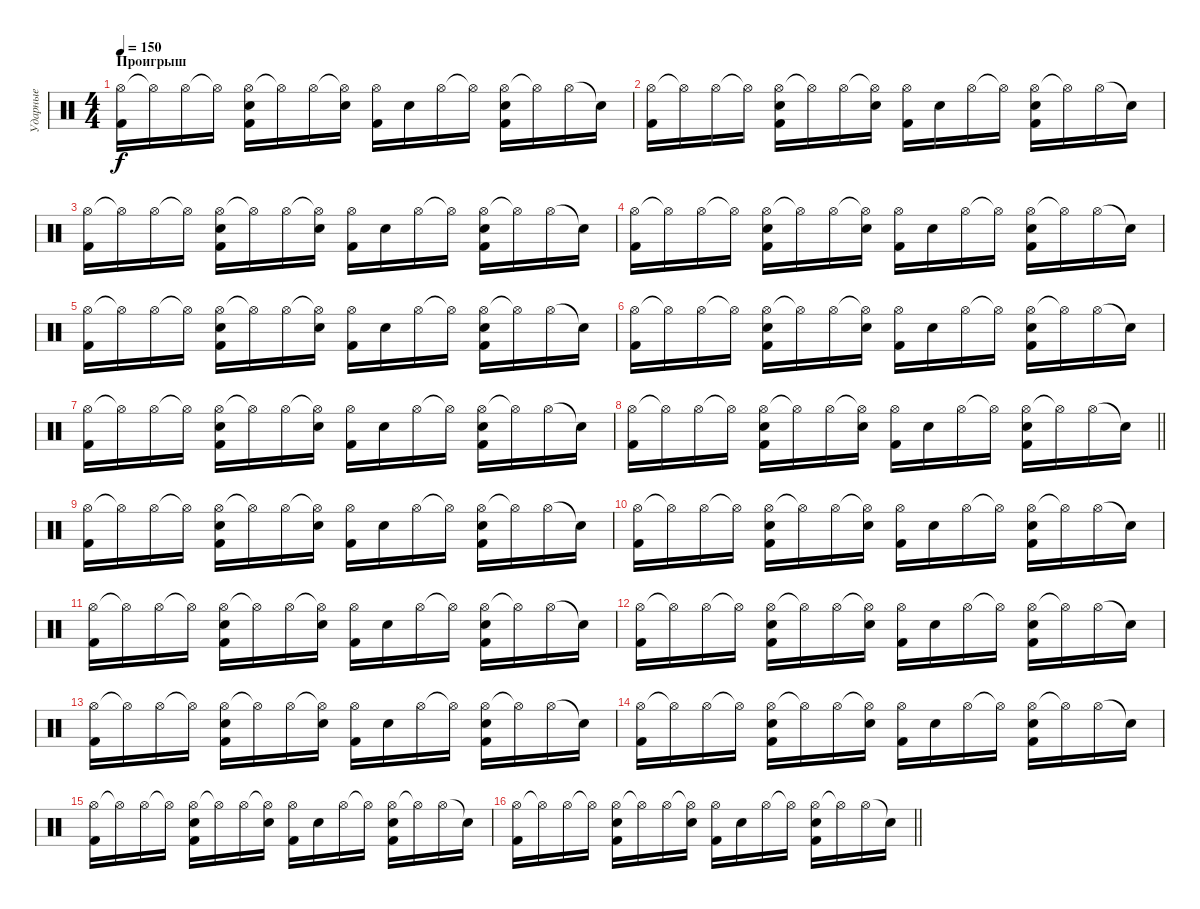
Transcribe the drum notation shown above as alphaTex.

\track ("Ударные" "Ударные") {instrument percussion}
\staff {score}
\articulation defaults
\ts (4 4)
\section ("" "Проигрыш")
\tempo 150
\clef neutral
\ks c
("Hi-Hat (open)" "Kick (hit) 2").16{dy f} "Hi-Hat (open)"{t}.16 "Hi-Hat (open)".16 "Hi-Hat (open)"{t}.16 ("Hi-Hat (open)" "Snare (hit) 2" "Kick (hit) 2").16 "Hi-Hat (open)"{t}.16 "Hi-Hat (open)".16 ("Hi-Hat (open)"{t} "Snare (hit) 2").16 ("Hi-Hat (open)" "Kick (hit) 2").16 "Snare (hit) 2".16 "Hi-Hat (open)".16 "Hi-Hat (open)"{t}.16 ("Hi-Hat (open)" "Snare (hit) 2" "Kick (hit) 2").16 "Hi-Hat (open)"{t}.16 "Hi-Hat (open)".16 "Snare (hit)"{t}.16 |
("Hi-Hat (open)" "Kick (hit) 2").16 "Hi-Hat (open)"{t}.16 "Hi-Hat (open)".16 "Hi-Hat (open)"{t}.16 ("Hi-Hat (open)" "Snare (hit) 2" "Kick (hit) 2").16 "Hi-Hat (open)"{t}.16 "Hi-Hat (open)".16 ("Hi-Hat (open)"{t} "Snare (hit) 2").16 ("Hi-Hat (open)" "Kick (hit) 2").16 "Snare (hit) 2".16 "Hi-Hat (open)".16 "Hi-Hat (open)"{t}.16 ("Hi-Hat (open)" "Snare (hit) 2" "Kick (hit) 2").16 "Hi-Hat (open)"{t}.16 "Hi-Hat (open)".16 "Snare (hit)"{t}.16 |
("Hi-Hat (open)" "Kick (hit) 2").16 "Hi-Hat (open)"{t}.16 "Hi-Hat (open)".16 "Hi-Hat (open)"{t}.16 ("Hi-Hat (open)" "Snare (hit) 2" "Kick (hit) 2").16 "Hi-Hat (open)"{t}.16 "Hi-Hat (open)".16 ("Hi-Hat (open)"{t} "Snare (hit) 2").16 ("Hi-Hat (open)" "Kick (hit) 2").16 "Snare (hit) 2".16 "Hi-Hat (open)".16 "Hi-Hat (open)"{t}.16 ("Hi-Hat (open)" "Snare (hit) 2" "Kick (hit) 2").16 "Hi-Hat (open)"{t}.16 "Hi-Hat (open)".16 "Snare (hit)"{t}.16 |
("Hi-Hat (open)" "Kick (hit) 2").16 "Hi-Hat (open)"{t}.16 "Hi-Hat (open)".16 "Hi-Hat (open)"{t}.16 ("Hi-Hat (open)" "Snare (hit) 2" "Kick (hit) 2").16 "Hi-Hat (open)"{t}.16 "Hi-Hat (open)".16 ("Hi-Hat (open)"{t} "Snare (hit) 2").16 ("Hi-Hat (open)" "Kick (hit) 2").16 "Snare (hit) 2".16 "Hi-Hat (open)".16 "Hi-Hat (open)"{t}.16 ("Hi-Hat (open)" "Snare (hit) 2" "Kick (hit) 2").16 "Hi-Hat (open)"{t}.16 "Hi-Hat (open)".16 "Snare (hit)"{t}.16 |
("Hi-Hat (open)" "Kick (hit) 2").16 "Hi-Hat (open)"{t}.16 "Hi-Hat (open)".16 "Hi-Hat (open)"{t}.16 ("Hi-Hat (open)" "Snare (hit) 2" "Kick (hit) 2").16 "Hi-Hat (open)"{t}.16 "Hi-Hat (open)".16 ("Hi-Hat (open)"{t} "Snare (hit) 2").16 ("Hi-Hat (open)" "Kick (hit) 2").16 "Snare (hit) 2".16 "Hi-Hat (open)".16 "Hi-Hat (open)"{t}.16 ("Hi-Hat (open)" "Snare (hit) 2" "Kick (hit) 2").16 "Hi-Hat (open)"{t}.16 "Hi-Hat (open)".16 "Snare (hit)"{t}.16 |
("Hi-Hat (open)" "Kick (hit) 2").16 "Hi-Hat (open)"{t}.16 "Hi-Hat (open)".16 "Hi-Hat (open)"{t}.16 ("Hi-Hat (open)" "Snare (hit) 2" "Kick (hit) 2").16 "Hi-Hat (open)"{t}.16 "Hi-Hat (open)".16 ("Hi-Hat (open)"{t} "Snare (hit) 2").16 ("Hi-Hat (open)" "Kick (hit) 2").16 "Snare (hit) 2".16 "Hi-Hat (open)".16 "Hi-Hat (open)"{t}.16 ("Hi-Hat (open)" "Snare (hit) 2" "Kick (hit) 2").16 "Hi-Hat (open)"{t}.16 "Hi-Hat (open)".16 "Snare (hit)"{t}.16 |
("Hi-Hat (open)" "Kick (hit) 2").16 "Hi-Hat (open)"{t}.16 "Hi-Hat (open)".16 "Hi-Hat (open)"{t}.16 ("Hi-Hat (open)" "Snare (hit) 2" "Kick (hit) 2").16 "Hi-Hat (open)"{t}.16 "Hi-Hat (open)".16 ("Hi-Hat (open)"{t} "Snare (hit) 2").16 ("Hi-Hat (open)" "Kick (hit) 2").16 "Snare (hit) 2".16 "Hi-Hat (open)".16 "Hi-Hat (open)"{t}.16 ("Hi-Hat (open)" "Snare (hit) 2" "Kick (hit) 2").16 "Hi-Hat (open)"{t}.16 "Hi-Hat (open)".16 "Snare (hit)"{t}.16 |
\barLineRight lightlight
("Hi-Hat (open)" "Kick (hit) 2").16 "Hi-Hat (open)"{t}.16 "Hi-Hat (open)".16 "Hi-Hat (open)"{t}.16 ("Hi-Hat (open)" "Snare (hit) 2" "Kick (hit) 2").16 "Hi-Hat (open)"{t}.16 "Hi-Hat (open)".16 ("Hi-Hat (open)"{t} "Snare (hit) 2").16 ("Hi-Hat (open)" "Kick (hit) 2").16 "Snare (hit) 2".16 "Hi-Hat (open)".16 "Hi-Hat (open)"{t}.16 ("Hi-Hat (open)" "Snare (hit) 2" "Kick (hit) 2").16 "Hi-Hat (open)"{t}.16 "Hi-Hat (open)".16 "Snare (hit)"{t}.16 |
("Hi-Hat (open)" "Kick (hit) 2").16 "Hi-Hat (open)"{t}.16 "Hi-Hat (open)".16 "Hi-Hat (open)"{t}.16 ("Hi-Hat (open)" "Snare (hit) 2" "Kick (hit) 2").16 "Hi-Hat (open)"{t}.16 "Hi-Hat (open)".16 ("Hi-Hat (open)"{t} "Snare (hit) 2").16 ("Hi-Hat (open)" "Kick (hit) 2").16 "Snare (hit) 2".16 "Hi-Hat (open)".16 "Hi-Hat (open)"{t}.16 ("Hi-Hat (open)" "Snare (hit) 2" "Kick (hit) 2").16 "Hi-Hat (open)"{t}.16 "Hi-Hat (open)".16 "Snare (hit)"{t}.16 |
("Hi-Hat (open)" "Kick (hit) 2").16 "Hi-Hat (open)"{t}.16 "Hi-Hat (open)".16 "Hi-Hat (open)"{t}.16 ("Hi-Hat (open)" "Snare (hit) 2" "Kick (hit) 2").16 "Hi-Hat (open)"{t}.16 "Hi-Hat (open)".16 ("Hi-Hat (open)"{t} "Snare (hit) 2").16 ("Hi-Hat (open)" "Kick (hit) 2").16 "Snare (hit) 2".16 "Hi-Hat (open)".16 "Hi-Hat (open)"{t}.16 ("Hi-Hat (open)" "Snare (hit) 2" "Kick (hit) 2").16 "Hi-Hat (open)"{t}.16 "Hi-Hat (open)".16 "Snare (hit)"{t}.16 |
("Hi-Hat (open)" "Kick (hit) 2").16 "Hi-Hat (open)"{t}.16 "Hi-Hat (open)".16 "Hi-Hat (open)"{t}.16 ("Hi-Hat (open)" "Snare (hit) 2" "Kick (hit) 2").16 "Hi-Hat (open)"{t}.16 "Hi-Hat (open)".16 ("Hi-Hat (open)"{t} "Snare (hit) 2").16 ("Hi-Hat (open)" "Kick (hit) 2").16 "Snare (hit) 2".16 "Hi-Hat (open)".16 "Hi-Hat (open)"{t}.16 ("Hi-Hat (open)" "Snare (hit) 2" "Kick (hit) 2").16 "Hi-Hat (open)"{t}.16 "Hi-Hat (open)".16 "Snare (hit)"{t}.16 |
("Hi-Hat (open)" "Kick (hit) 2").16 "Hi-Hat (open)"{t}.16 "Hi-Hat (open)".16 "Hi-Hat (open)"{t}.16 ("Hi-Hat (open)" "Snare (hit) 2" "Kick (hit) 2").16 "Hi-Hat (open)"{t}.16 "Hi-Hat (open)".16 ("Hi-Hat (open)"{t} "Snare (hit) 2").16 ("Hi-Hat (open)" "Kick (hit) 2").16 "Snare (hit) 2".16 "Hi-Hat (open)".16 "Hi-Hat (open)"{t}.16 ("Hi-Hat (open)" "Snare (hit) 2" "Kick (hit) 2").16 "Hi-Hat (open)"{t}.16 "Hi-Hat (open)".16 "Snare (hit)"{t}.16 |
("Hi-Hat (open)" "Kick (hit) 2").16 "Hi-Hat (open)"{t}.16 "Hi-Hat (open)".16 "Hi-Hat (open)"{t}.16 ("Hi-Hat (open)" "Snare (hit) 2" "Kick (hit) 2").16 "Hi-Hat (open)"{t}.16 "Hi-Hat (open)".16 ("Hi-Hat (open)"{t} "Snare (hit) 2").16 ("Hi-Hat (open)" "Kick (hit) 2").16 "Snare (hit) 2".16 "Hi-Hat (open)".16 "Hi-Hat (open)"{t}.16 ("Hi-Hat (open)" "Snare (hit) 2" "Kick (hit) 2").16 "Hi-Hat (open)"{t}.16 "Hi-Hat (open)".16 "Snare (hit)"{t}.16 |
("Hi-Hat (open)" "Kick (hit) 2").16 "Hi-Hat (open)"{t}.16 "Hi-Hat (open)".16 "Hi-Hat (open)"{t}.16 ("Hi-Hat (open)" "Snare (hit) 2" "Kick (hit) 2").16 "Hi-Hat (open)"{t}.16 "Hi-Hat (open)".16 ("Hi-Hat (open)"{t} "Snare (hit) 2").16 ("Hi-Hat (open)" "Kick (hit) 2").16 "Snare (hit) 2".16 "Hi-Hat (open)".16 "Hi-Hat (open)"{t}.16 ("Hi-Hat (open)" "Snare (hit) 2" "Kick (hit) 2").16 "Hi-Hat (open)"{t}.16 "Hi-Hat (open)".16 "Snare (hit)"{t}.16 |
("Hi-Hat (open)" "Kick (hit) 2").16 "Hi-Hat (open)"{t}.16 "Hi-Hat (open)".16 "Hi-Hat (open)"{t}.16 ("Hi-Hat (open)" "Snare (hit) 2" "Kick (hit) 2").16 "Hi-Hat (open)"{t}.16 "Hi-Hat (open)".16 ("Hi-Hat (open)"{t} "Snare (hit) 2").16 ("Hi-Hat (open)" "Kick (hit) 2").16 "Snare (hit) 2".16 "Hi-Hat (open)".16 "Hi-Hat (open)"{t}.16 ("Hi-Hat (open)" "Snare (hit) 2" "Kick (hit) 2").16 "Hi-Hat (open)"{t}.16 "Hi-Hat (open)".16 "Snare (hit)"{t}.16 |
\barLineRight lightlight
("Hi-Hat (open)" "Kick (hit) 2").16 "Hi-Hat (open)"{t}.16 "Hi-Hat (open)".16 "Hi-Hat (open)"{t}.16 ("Hi-Hat (open)" "Snare (hit) 2" "Kick (hit) 2").16 "Hi-Hat (open)"{t}.16 "Hi-Hat (open)".16 ("Hi-Hat (open)"{t} "Snare (hit) 2").16 ("Hi-Hat (open)" "Kick (hit) 2").16 "Snare (hit) 2".16 "Hi-Hat (open)".16 "Hi-Hat (open)"{t}.16 ("Hi-Hat (open)" "Snare (hit) 2" "Kick (hit) 2").16 "Hi-Hat (open)"{t}.16 "Hi-Hat (open)".16 "Snare (hit)"{t}.16
